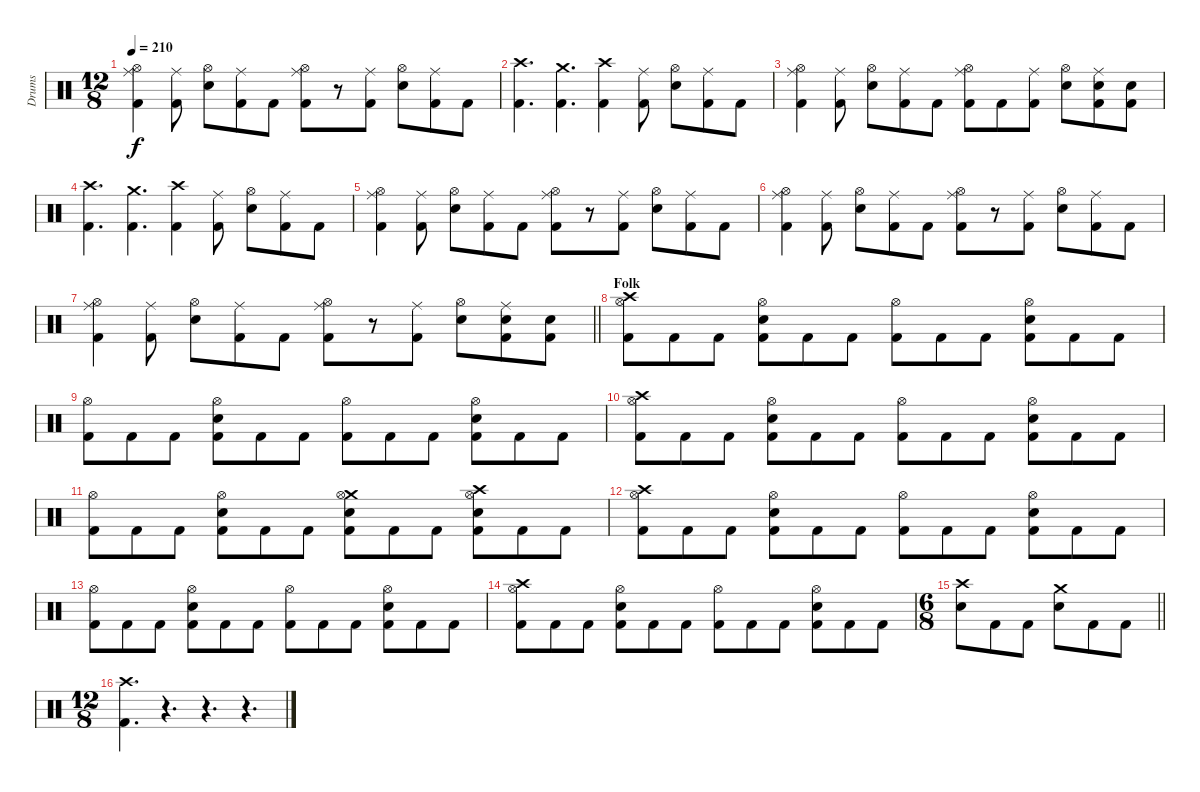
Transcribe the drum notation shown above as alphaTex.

\track ("Drums" "Drums") {instrument percussion}
\staff {score}
\articulation defaults
\ts (12 8)
\tempo 210
\clef neutral
\ks c
("Ride (middle)" "Hi-Hat (open)" "Kick (hit) 2").4{dy f} ("Ride (middle)" "Kick (hit) 2").8 ("Hi-Hat (open)" "Snare (hit) 2").8 ("Ride (middle)" "Kick (hit) 2").8 "Kick (hit) 2".8 ("Ride (middle)" "Hi-Hat (open)" "Kick (hit) 2").8 r.8 ("Ride (middle)" "Kick (hit) 2").8 ("Hi-Hat (open)" "Snare (hit) 2").8 ("Ride (middle)" "Kick (hit) 2").8 "Kick (hit) 2".8 |
("Crash high (hit)" "Kick (hit) 2").4{d} ("Crash medium (hit)" "Kick (hit) 2").4{d} ("Crash high (hit)" "Kick (hit) 2").4 ("Ride (middle)" "Kick (hit) 2").8 ("Hi-Hat (open)" "Snare (hit) 2").8 ("Ride (middle)" "Kick (hit) 2").8 "Kick (hit) 2".8 |
("Ride (middle)" "Hi-Hat (open)" "Kick (hit) 2").4 ("Ride (middle)" "Kick (hit) 2").8 ("Hi-Hat (open)" "Snare (hit) 2").8 ("Ride (middle)" "Kick (hit) 2").8 "Kick (hit) 2".8 ("Ride (middle)" "Hi-Hat (open)" "Kick (hit) 2").8 "Kick (hit) 2".8 ("Ride (middle)" "Kick (hit) 2").8 ("Hi-Hat (open)" "Snare (hit) 2").8 ("Ride (middle)" "Snare (hit) 2" "Kick (hit) 2").8 ("Snare (hit) 2" "Kick (hit) 2").8 |
("Crash high (hit)" "Kick (hit) 2").4{d} ("Crash medium (hit)" "Kick (hit) 2").4{d} ("Crash high (hit)" "Kick (hit) 2").4 ("Ride (middle)" "Kick (hit) 2").8 ("Hi-Hat (open)" "Snare (hit) 2").8 ("Ride (middle)" "Kick (hit) 2").8 "Kick (hit) 2".8 |
("Ride (middle)" "Hi-Hat (open)" "Kick (hit) 2").4 ("Ride (middle)" "Kick (hit) 2").8 ("Hi-Hat (open)" "Snare (hit) 2").8 ("Ride (middle)" "Kick (hit) 2").8 "Kick (hit) 2".8 ("Ride (middle)" "Hi-Hat (open)" "Kick (hit) 2").8 r.8 ("Ride (middle)" "Kick (hit) 2").8 ("Hi-Hat (open)" "Snare (hit) 2").8 ("Ride (middle)" "Kick (hit) 2").8 "Kick (hit) 2".8 |
("Ride (middle)" "Hi-Hat (open)" "Kick (hit) 2").4 ("Ride (middle)" "Kick (hit) 2").8 ("Hi-Hat (open)" "Snare (hit) 2").8 ("Ride (middle)" "Kick (hit) 2").8 "Kick (hit) 2".8 ("Ride (middle)" "Hi-Hat (open)" "Kick (hit) 2").8 r.8 ("Ride (middle)" "Kick (hit) 2").8 ("Hi-Hat (open)" "Snare (hit) 2").8 ("Ride (middle)" "Kick (hit) 2").8 "Kick (hit) 2".8 |
\barLineRight lightlight
("Ride (middle)" "Hi-Hat (open)" "Kick (hit) 2").4 ("Ride (middle)" "Kick (hit) 2").8 ("Hi-Hat (open)" "Snare (hit) 2").8 ("Ride (middle)" "Kick (hit) 2").8 "Kick (hit) 2".8 ("Ride (middle)" "Hi-Hat (open)" "Kick (hit) 2").8 r.8 ("Ride (middle)" "Kick (hit) 2").8 ("Hi-Hat (open)" "Snare (hit) 2").8 ("Ride (middle)" "Snare (hit) 2" "Kick (hit) 2").8 ("Snare (hit) 2" "Kick (hit) 2").8 |
\section ("" "Folk")
("Crash high (hit)" "Hi-Hat (open)" "Kick (hit) 2").8 "Kick (hit) 2".8 "Kick (hit) 2".8 ("Hi-Hat (open)" "Snare (hit) 2" "Kick (hit) 2").8 "Kick (hit) 2".8 "Kick (hit) 2".8 ("Hi-Hat (open)" "Kick (hit) 2").8 "Kick (hit) 2".8 "Kick (hit) 2".8 ("Hi-Hat (open)" "Snare (hit) 2" "Kick (hit) 2").8 "Kick (hit) 2".8 "Kick (hit) 2".8 |
("Hi-Hat (open)" "Kick (hit) 2").8 "Kick (hit) 2".8 "Kick (hit) 2".8 ("Hi-Hat (open)" "Snare (hit) 2" "Kick (hit) 2").8 "Kick (hit) 2".8 "Kick (hit) 2".8 ("Hi-Hat (open)" "Kick (hit) 2").8 "Kick (hit) 2".8 "Kick (hit) 2".8 ("Hi-Hat (open)" "Snare (hit) 2" "Kick (hit) 2").8 "Kick (hit) 2".8 "Kick (hit) 2".8 |
("Crash high (hit)" "Hi-Hat (open)" "Kick (hit) 2").8 "Kick (hit) 2".8 "Kick (hit) 2".8 ("Hi-Hat (open)" "Snare (hit) 2" "Kick (hit) 2").8 "Kick (hit) 2".8 "Kick (hit) 2".8 ("Hi-Hat (open)" "Kick (hit) 2").8 "Kick (hit) 2".8 "Kick (hit) 2".8 ("Hi-Hat (open)" "Snare (hit) 2" "Kick (hit) 2").8 "Kick (hit) 2".8 "Kick (hit) 2".8 |
("Hi-Hat (open)" "Kick (hit) 2").8 "Kick (hit) 2".8 "Kick (hit) 2".8 ("Hi-Hat (open)" "Snare (hit) 2" "Kick (hit) 2").8 "Kick (hit) 2".8 "Kick (hit) 2".8 ("Crash medium (hit)" "Hi-Hat (open)" "Snare (hit) 2" "Kick (hit) 2").8 "Kick (hit) 2".8 "Kick (hit) 2".8 ("Crash high (hit)" "Hi-Hat (open)" "Snare (hit) 2" "Kick (hit) 2").8 "Kick (hit) 2".8 "Kick (hit) 2".8 |
("Crash high (hit)" "Hi-Hat (open)" "Kick (hit) 2").8 "Kick (hit) 2".8 "Kick (hit) 2".8 ("Hi-Hat (open)" "Snare (hit) 2" "Kick (hit) 2").8 "Kick (hit) 2".8 "Kick (hit) 2".8 ("Hi-Hat (open)" "Kick (hit) 2").8 "Kick (hit) 2".8 "Kick (hit) 2".8 ("Hi-Hat (open)" "Snare (hit) 2" "Kick (hit) 2").8 "Kick (hit) 2".8 "Kick (hit) 2".8 |
("Hi-Hat (open)" "Kick (hit) 2").8 "Kick (hit) 2".8 "Kick (hit) 2".8 ("Hi-Hat (open)" "Snare (hit) 2" "Kick (hit) 2").8 "Kick (hit) 2".8 "Kick (hit) 2".8 ("Hi-Hat (open)" "Kick (hit) 2").8 "Kick (hit) 2".8 "Kick (hit) 2".8 ("Hi-Hat (open)" "Snare (hit) 2" "Kick (hit) 2").8 "Kick (hit) 2".8 "Kick (hit) 2".8 |
("Crash high (hit)" "Hi-Hat (open)" "Kick (hit) 2").8 "Kick (hit) 2".8 "Kick (hit) 2".8 ("Hi-Hat (open)" "Snare (hit) 2" "Kick (hit) 2").8 "Kick (hit) 2".8 "Kick (hit) 2".8 ("Hi-Hat (open)" "Kick (hit) 2").8 "Kick (hit) 2".8 "Kick (hit) 2".8 ("Hi-Hat (open)" "Snare (hit) 2" "Kick (hit) 2").8 "Kick (hit) 2".8 "Kick (hit) 2".8 |
\ts (6 8)
\barLineRight lightlight
("Crash high (hit)" "Snare (hit) 2").8 "Kick (hit) 2".8 "Kick (hit) 2".8 ("Crash medium (hit)" "Snare (hit) 2").8 "Kick (hit) 2".8 "Kick (hit) 2".8 |
\ts (12 8)
("Crash high (hit)" "Kick (hit) 2").4{d} r.4{d} r.4{d} r.4{d}
